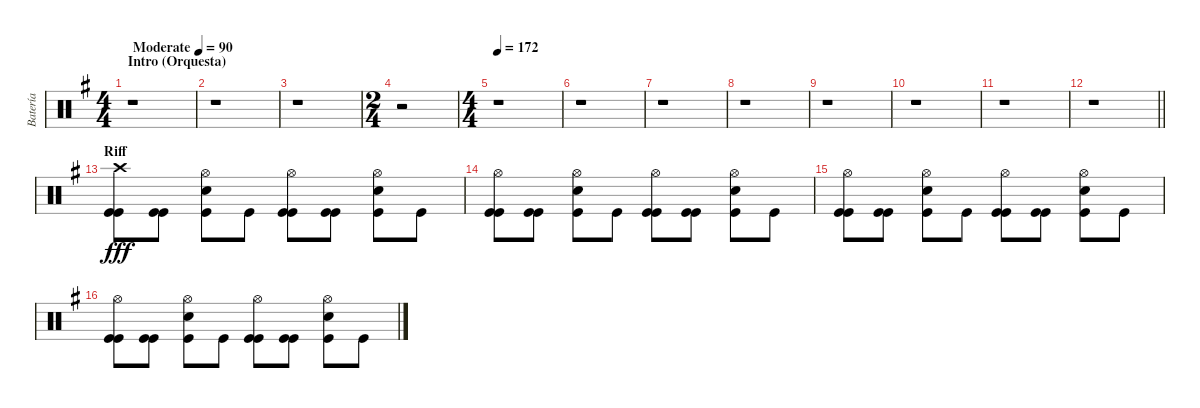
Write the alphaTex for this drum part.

\track ("Batería" "Batería") {instrument percussion}
\staff {score}
\articulation defaults
\ts (4 4)
\section ("" "Intro (Orquesta)")
\tempo (90 "Moderate")
\clef neutral
\ks eminor
r.1{dy fff} |
r.1 |
r.1 |
\ts (2 4)
r.2 |
\ts (4 4)
\tempo 172
r.1 |
r.1 |
r.1 |
r.1 |
r.1 |
r.1 |
r.1 |
\barLineRight lightlight
r.1 |
\section ("" "Riff")
("Kick (hit)" "Kick (hit)" "Crash high (hit)").8 ("Kick (hit)" "Kick (hit)").8 ("Kick (hit)" "Electric Snare (hit)" "Hi-Hat (open)").8 "Kick (hit)".8 ("Kick (hit)" "Kick (hit)" "Hi-Hat (open)").8 ("Kick (hit)" "Kick (hit)").8 ("Kick (hit)" "Electric Snare (hit)" "Hi-Hat (open)").8 "Kick (hit)".8 |
("Kick (hit)" "Kick (hit)" "Hi-Hat (open)").8 ("Kick (hit)" "Kick (hit)").8 ("Kick (hit)" "Electric Snare (hit)" "Hi-Hat (open)").8 "Kick (hit)".8 ("Kick (hit)" "Kick (hit)" "Hi-Hat (open)").8 ("Kick (hit)" "Kick (hit)").8 ("Kick (hit)" "Electric Snare (hit)" "Hi-Hat (open)").8 "Kick (hit)".8 |
("Kick (hit)" "Kick (hit)" "Hi-Hat (open)").8 ("Kick (hit)" "Kick (hit)").8 ("Kick (hit)" "Electric Snare (hit)" "Hi-Hat (open)").8 "Kick (hit)".8 ("Kick (hit)" "Kick (hit)" "Hi-Hat (open)").8 ("Kick (hit)" "Kick (hit)").8 ("Kick (hit)" "Electric Snare (hit)" "Hi-Hat (open)").8 "Kick (hit)".8 |
("Kick (hit)" "Kick (hit)" "Hi-Hat (open)").8 ("Kick (hit)" "Kick (hit)").8 ("Kick (hit)" "Electric Snare (hit)" "Hi-Hat (open)").8 "Kick (hit)".8 ("Kick (hit)" "Kick (hit)" "Hi-Hat (open)").8 ("Kick (hit)" "Kick (hit)").8 ("Kick (hit)" "Electric Snare (hit)" "Hi-Hat (open)").8 "Kick (hit)".8
